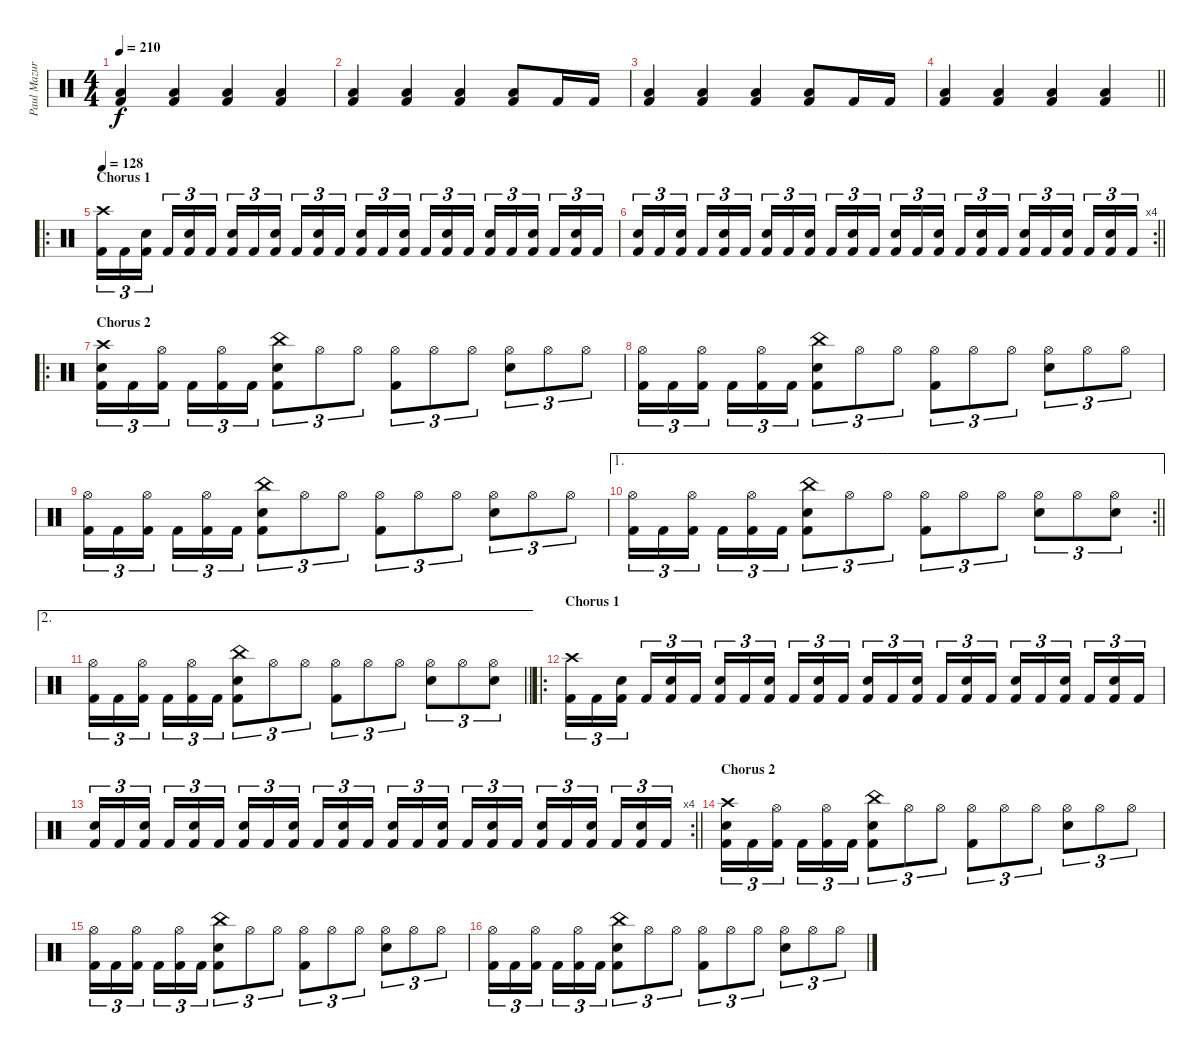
\track ("Paul Mazurkiewicz" "Paul Mazur") {instrument percussion}
\staff {score}
\articulation defaults
\ts (4 4)
\tempo 210
\clef neutral
\ks c
("Low Floor Tom (hit)" "Kick (hit) 2").4{dy f} ("Low Floor Tom (hit)" "Kick (hit) 2").4 ("Low Floor Tom (hit)" "Kick (hit) 2").4 ("Low Floor Tom (hit)" "Kick (hit) 2").4 |
("Low Floor Tom (hit)" "Kick (hit) 2").4 ("Low Floor Tom (hit)" "Kick (hit) 2").4 ("Low Floor Tom (hit)" "Kick (hit) 2").4 ("Low Floor Tom (hit)" "Kick (hit) 2").8 "Kick (hit) 2".16 "Kick (hit) 2".16 |
("Low Floor Tom (hit)" "Kick (hit) 2").4 ("Low Floor Tom (hit)" "Kick (hit) 2").4 ("Low Floor Tom (hit)" "Kick (hit) 2").4 ("Low Floor Tom (hit)" "Kick (hit) 2").8 "Kick (hit) 2".16 "Kick (hit) 2".16 |
\barLineRight lightlight
("Low Floor Tom (hit)" "Kick (hit) 2").4 ("Low Floor Tom (hit)" "Kick (hit) 2").4 ("Low Floor Tom (hit)" "Kick (hit) 2").4 ("Low Floor Tom (hit)" "Kick (hit) 2").4 |
\ro
\section ("" "Chorus 1")
\tempo 128
("Crash high (hit)" "Kick (hit) 2").16{tu (3 2)} "Kick (hit) 2".16{tu (3 2)} ("Snare (hit) 2" "Kick (hit) 2").16{tu (3 2)} "Kick (hit) 2".16{tu (3 2)} ("Snare (hit) 2" "Kick (hit) 2").16{tu (3 2)} "Kick (hit) 2".16{tu (3 2)} ("Snare (hit) 2" "Kick (hit) 2").16{tu (3 2)} "Kick (hit) 2".16{tu (3 2)} ("Snare (hit) 2" "Kick (hit) 2").16{tu (3 2)} "Kick (hit) 2".16{tu (3 2)} ("Snare (hit) 2" "Kick (hit) 2").16{tu (3 2)} "Kick (hit) 2".16{tu (3 2)} ("Snare (hit) 2" "Kick (hit) 2").16{tu (3 2)} "Kick (hit) 2".16{tu (3 2)} ("Snare (hit) 2" "Kick (hit) 2").16{tu (3 2)} "Kick (hit) 2".16{tu (3 2)} ("Snare (hit) 2" "Kick (hit) 2").16{tu (3 2)} "Kick (hit) 2".16{tu (3 2)} ("Snare (hit) 2" "Kick (hit) 2").16{tu (3 2)} "Kick (hit) 2".16{tu (3 2)} ("Snare (hit) 2" "Kick (hit) 2").16{tu (3 2)} "Kick (hit) 2".16{tu (3 2)} ("Snare (hit) 2" "Kick (hit) 2").16{tu (3 2)} "Kick (hit) 2".16{tu (3 2)} |
\rc 4
\barLineRight lightlight
("Snare (hit) 2" "Kick (hit) 2").16{tu (3 2)} "Kick (hit) 2".16{tu (3 2)} ("Snare (hit) 2" "Kick (hit) 2").16{tu (3 2)} "Kick (hit) 2".16{tu (3 2)} ("Snare (hit) 2" "Kick (hit) 2").16{tu (3 2)} "Kick (hit) 2".16{tu (3 2)} ("Snare (hit) 2" "Kick (hit) 2").16{tu (3 2)} "Kick (hit) 2".16{tu (3 2)} ("Snare (hit) 2" "Kick (hit) 2").16{tu (3 2)} "Kick (hit) 2".16{tu (3 2)} ("Snare (hit) 2" "Kick (hit) 2").16{tu (3 2)} "Kick (hit) 2".16{tu (3 2)} ("Snare (hit) 2" "Kick (hit) 2").16{tu (3 2)} "Kick (hit) 2".16{tu (3 2)} ("Snare (hit) 2" "Kick (hit) 2").16{tu (3 2)} "Kick (hit) 2".16{tu (3 2)} ("Snare (hit) 2" "Kick (hit) 2").16{tu (3 2)} "Kick (hit) 2".16{tu (3 2)} ("Snare (hit) 2" "Kick (hit) 2").16{tu (3 2)} "Kick (hit) 2".16{tu (3 2)} ("Snare (hit) 2" "Kick (hit) 2").16{tu (3 2)} "Kick (hit) 2".16{tu (3 2)} ("Snare (hit) 2" "Kick (hit) 2").16{tu (3 2)} "Kick (hit) 2".16{tu (3 2)} |
\ro
\section ("" "Chorus 2")
("Crash high (hit)" "Kick (hit) 2" "Snare (hit) 2").16{tu (3 2)} "Kick (hit) 2".16{tu (3 2)} ("Hi-Hat (open)" "Kick (hit) 2").16{tu (3 2)} "Kick (hit) 2".16{tu (3 2)} ("Hi-Hat (open)" "Kick (hit) 2").16{tu (3 2)} "Kick (hit) 2".16{tu (3 2)} ("China (hit)" "Kick (hit) 2" "Snare (hit) 2").8{tu (3 2)} "Hi-Hat (open)".8{tu (3 2)} "Hi-Hat (open)".8{tu (3 2)} ("Hi-Hat (open)" "Kick (hit) 2").8{tu (3 2)} "Hi-Hat (open)".8{tu (3 2)} "Hi-Hat (open)".8{tu (3 2)} ("Hi-Hat (open)" "Snare (hit) 2").8{tu (3 2)} "Hi-Hat (open)".8{tu (3 2)} "Hi-Hat (open)".8{tu (3 2)} |
("Hi-Hat (open)" "Kick (hit) 2").16{tu (3 2)} "Kick (hit) 2".16{tu (3 2)} ("Hi-Hat (open)" "Kick (hit) 2").16{tu (3 2)} "Kick (hit) 2".16{tu (3 2)} ("Hi-Hat (open)" "Kick (hit) 2").16{tu (3 2)} "Kick (hit) 2".16{tu (3 2)} ("China (hit)" "Kick (hit) 2" "Snare (hit) 2").8{tu (3 2)} "Hi-Hat (open)".8{tu (3 2)} "Hi-Hat (open)".8{tu (3 2)} ("Hi-Hat (open)" "Kick (hit) 2").8{tu (3 2)} "Hi-Hat (open)".8{tu (3 2)} "Hi-Hat (open)".8{tu (3 2)} ("Hi-Hat (open)" "Snare (hit) 2").8{tu (3 2)} "Hi-Hat (open)".8{tu (3 2)} "Hi-Hat (open)".8{tu (3 2)} |
("Hi-Hat (open)" "Kick (hit) 2").16{tu (3 2)} "Kick (hit) 2".16{tu (3 2)} ("Hi-Hat (open)" "Kick (hit) 2").16{tu (3 2)} "Kick (hit) 2".16{tu (3 2)} ("Hi-Hat (open)" "Kick (hit) 2").16{tu (3 2)} "Kick (hit) 2".16{tu (3 2)} ("China (hit)" "Kick (hit) 2" "Snare (hit) 2").8{tu (3 2)} "Hi-Hat (open)".8{tu (3 2)} "Hi-Hat (open)".8{tu (3 2)} ("Hi-Hat (open)" "Kick (hit) 2").8{tu (3 2)} "Hi-Hat (open)".8{tu (3 2)} "Hi-Hat (open)".8{tu (3 2)} ("Hi-Hat (open)" "Snare (hit) 2").8{tu (3 2)} "Hi-Hat (open)".8{tu (3 2)} "Hi-Hat (open)".8{tu (3 2)} |
\ae 1
\rc 2
\barLineRight lightlight
("Hi-Hat (open)" "Kick (hit) 2").16{tu (3 2)} "Kick (hit) 2".16{tu (3 2)} ("Hi-Hat (open)" "Kick (hit) 2").16{tu (3 2)} "Kick (hit) 2".16{tu (3 2)} ("Hi-Hat (open)" "Kick (hit) 2").16{tu (3 2)} "Kick (hit) 2".16{tu (3 2)} ("China (hit)" "Kick (hit) 2" "Snare (hit) 2").8{tu (3 2)} "Hi-Hat (open)".8{tu (3 2)} "Hi-Hat (open)".8{tu (3 2)} ("Hi-Hat (open)" "Kick (hit) 2").8{tu (3 2)} "Hi-Hat (open)".8{tu (3 2)} "Hi-Hat (open)".8{tu (3 2)} ("Hi-Hat (open)" "Snare (hit) 2").8{tu (3 2)} "Hi-Hat (open)".8{tu (3 2)} ("Hi-Hat (open)" "Snare (hit) 2").8{tu (3 2)} |
\ae 2
\barLineRight lightlight
("Hi-Hat (open)" "Kick (hit) 2").16{tu (3 2)} "Kick (hit) 2".16{tu (3 2)} ("Hi-Hat (open)" "Kick (hit) 2").16{tu (3 2)} "Kick (hit) 2".16{tu (3 2)} ("Hi-Hat (open)" "Kick (hit) 2").16{tu (3 2)} "Kick (hit) 2".16{tu (3 2)} ("China (hit)" "Kick (hit) 2" "Snare (hit) 2").8{tu (3 2)} "Hi-Hat (open)".8{tu (3 2)} "Hi-Hat (open)".8{tu (3 2)} ("Hi-Hat (open)" "Kick (hit) 2").8{tu (3 2)} "Hi-Hat (open)".8{tu (3 2)} "Hi-Hat (open)".8{tu (3 2)} ("Hi-Hat (open)" "Snare (hit) 2").8{tu (3 2)} "Hi-Hat (open)".8{tu (3 2)} ("Hi-Hat (open)" "Snare (hit) 2").8{tu (3 2)} |
\ro
\section ("" "Chorus 1")
("Crash high (hit)" "Kick (hit) 2").16{tu (3 2)} "Kick (hit) 2".16{tu (3 2)} ("Snare (hit) 2" "Kick (hit) 2").16{tu (3 2)} "Kick (hit) 2".16{tu (3 2)} ("Snare (hit) 2" "Kick (hit) 2").16{tu (3 2)} "Kick (hit) 2".16{tu (3 2)} ("Snare (hit) 2" "Kick (hit) 2").16{tu (3 2)} "Kick (hit) 2".16{tu (3 2)} ("Snare (hit) 2" "Kick (hit) 2").16{tu (3 2)} "Kick (hit) 2".16{tu (3 2)} ("Snare (hit) 2" "Kick (hit) 2").16{tu (3 2)} "Kick (hit) 2".16{tu (3 2)} ("Snare (hit) 2" "Kick (hit) 2").16{tu (3 2)} "Kick (hit) 2".16{tu (3 2)} ("Snare (hit) 2" "Kick (hit) 2").16{tu (3 2)} "Kick (hit) 2".16{tu (3 2)} ("Snare (hit) 2" "Kick (hit) 2").16{tu (3 2)} "Kick (hit) 2".16{tu (3 2)} ("Snare (hit) 2" "Kick (hit) 2").16{tu (3 2)} "Kick (hit) 2".16{tu (3 2)} ("Snare (hit) 2" "Kick (hit) 2").16{tu (3 2)} "Kick (hit) 2".16{tu (3 2)} ("Snare (hit) 2" "Kick (hit) 2").16{tu (3 2)} "Kick (hit) 2".16{tu (3 2)} |
\rc 4
\barLineRight lightlight
("Snare (hit) 2" "Kick (hit) 2").16{tu (3 2)} "Kick (hit) 2".16{tu (3 2)} ("Snare (hit) 2" "Kick (hit) 2").16{tu (3 2)} "Kick (hit) 2".16{tu (3 2)} ("Snare (hit) 2" "Kick (hit) 2").16{tu (3 2)} "Kick (hit) 2".16{tu (3 2)} ("Snare (hit) 2" "Kick (hit) 2").16{tu (3 2)} "Kick (hit) 2".16{tu (3 2)} ("Snare (hit) 2" "Kick (hit) 2").16{tu (3 2)} "Kick (hit) 2".16{tu (3 2)} ("Snare (hit) 2" "Kick (hit) 2").16{tu (3 2)} "Kick (hit) 2".16{tu (3 2)} ("Snare (hit) 2" "Kick (hit) 2").16{tu (3 2)} "Kick (hit) 2".16{tu (3 2)} ("Snare (hit) 2" "Kick (hit) 2").16{tu (3 2)} "Kick (hit) 2".16{tu (3 2)} ("Snare (hit) 2" "Kick (hit) 2").16{tu (3 2)} "Kick (hit) 2".16{tu (3 2)} ("Snare (hit) 2" "Kick (hit) 2").16{tu (3 2)} "Kick (hit) 2".16{tu (3 2)} ("Snare (hit) 2" "Kick (hit) 2").16{tu (3 2)} "Kick (hit) 2".16{tu (3 2)} ("Snare (hit) 2" "Kick (hit) 2").16{tu (3 2)} "Kick (hit) 2".16{tu (3 2)} |
\section ("" "Chorus 2")
("Crash high (hit)" "Kick (hit) 2" "Snare (hit) 2").16{tu (3 2)} "Kick (hit) 2".16{tu (3 2)} ("Hi-Hat (open)" "Kick (hit) 2").16{tu (3 2)} "Kick (hit) 2".16{tu (3 2)} ("Hi-Hat (open)" "Kick (hit) 2").16{tu (3 2)} "Kick (hit) 2".16{tu (3 2)} ("China (hit)" "Kick (hit) 2" "Snare (hit) 2").8{tu (3 2)} "Hi-Hat (open)".8{tu (3 2)} "Hi-Hat (open)".8{tu (3 2)} ("Hi-Hat (open)" "Kick (hit) 2").8{tu (3 2)} "Hi-Hat (open)".8{tu (3 2)} "Hi-Hat (open)".8{tu (3 2)} ("Hi-Hat (open)" "Snare (hit) 2").8{tu (3 2)} "Hi-Hat (open)".8{tu (3 2)} "Hi-Hat (open)".8{tu (3 2)} |
("Hi-Hat (open)" "Kick (hit) 2").16{tu (3 2)} "Kick (hit) 2".16{tu (3 2)} ("Hi-Hat (open)" "Kick (hit) 2").16{tu (3 2)} "Kick (hit) 2".16{tu (3 2)} ("Hi-Hat (open)" "Kick (hit) 2").16{tu (3 2)} "Kick (hit) 2".16{tu (3 2)} ("China (hit)" "Kick (hit) 2" "Snare (hit) 2").8{tu (3 2)} "Hi-Hat (open)".8{tu (3 2)} "Hi-Hat (open)".8{tu (3 2)} ("Hi-Hat (open)" "Kick (hit) 2").8{tu (3 2)} "Hi-Hat (open)".8{tu (3 2)} "Hi-Hat (open)".8{tu (3 2)} ("Hi-Hat (open)" "Snare (hit) 2").8{tu (3 2)} "Hi-Hat (open)".8{tu (3 2)} "Hi-Hat (open)".8{tu (3 2)} |
("Hi-Hat (open)" "Kick (hit) 2").16{tu (3 2)} "Kick (hit) 2".16{tu (3 2)} ("Hi-Hat (open)" "Kick (hit) 2").16{tu (3 2)} "Kick (hit) 2".16{tu (3 2)} ("Hi-Hat (open)" "Kick (hit) 2").16{tu (3 2)} "Kick (hit) 2".16{tu (3 2)} ("China (hit)" "Kick (hit) 2" "Snare (hit) 2").8{tu (3 2)} "Hi-Hat (open)".8{tu (3 2)} "Hi-Hat (open)".8{tu (3 2)} ("Hi-Hat (open)" "Kick (hit) 2").8{tu (3 2)} "Hi-Hat (open)".8{tu (3 2)} "Hi-Hat (open)".8{tu (3 2)} ("Hi-Hat (open)" "Snare (hit) 2").8{tu (3 2)} "Hi-Hat (open)".8{tu (3 2)} "Hi-Hat (open)".8{tu (3 2)}
